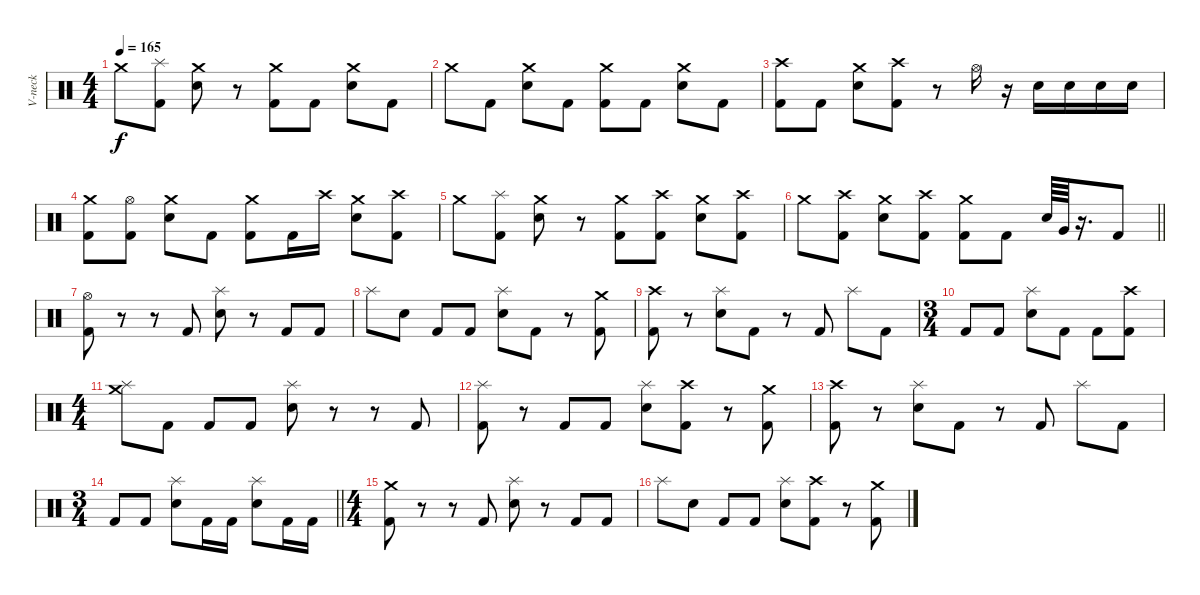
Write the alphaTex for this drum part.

\track ("V-neck" "V-neck") {instrument percussion}
\staff {score}
\articulation defaults
\ts (4 4)
\tempo 165
\clef neutral
\ks c "Crash medium (hit)".8{dy f}
("Splash (hit)" "Kick (hit) 2").8 ("Crash medium (hit)" "Electric Snare (hit)").8 r.8 ("Crash medium (hit)" "Kick (hit) 2").8 "Kick (hit) 2".8 ("Crash medium (hit)" "Electric Snare (hit)").8 "Kick (hit) 2".8 |
"Crash medium (hit)".8 "Kick (hit) 2".8 ("Crash medium (hit)" "Electric Snare (hit)").8 "Kick (hit) 2".8 ("Crash medium (hit)" "Kick (hit) 2").8 "Kick (hit) 2".8 ("Crash medium (hit)" "Electric Snare (hit)").8 "Kick (hit) 2".8 |
("Crash high (hit)" "Kick (hit) 2").8 "Kick (hit) 2".8 ("Crash medium (hit)" "Electric Snare (hit)").8 ("Crash high (hit)" "Kick (hit) 2").8 r.8 "Hi-Hat (open)".16 r.16 "Electric Snare (hit)".16 "Electric Snare (hit)".16 "Electric Snare (hit)".16 "Electric Snare (hit)".16 |
("Crash medium (hit)" "Kick (hit) 2").8 ("Hi-Hat (open)" "Kick (hit) 2").8 ("Crash medium (hit)" "Electric Snare (hit)").8 "Kick (hit) 2".8 ("Crash medium (hit)" "Kick (hit) 2").8 "Kick (hit) 2".16 "Crash high (hit)".16 ("Crash medium (hit)" "Electric Snare (hit)").8 ("Crash high (hit)" "Kick (hit) 2").8 |
"Crash medium (hit)".8 ("Splash (hit)" "Kick (hit) 2").8 ("Crash medium (hit)" "Electric Snare (hit)").8 r.8 ("Crash medium (hit)" "Kick (hit) 2").8 ("Crash high (hit)" "Kick (hit) 2").8 ("Crash medium (hit)" "Electric Snare (hit)").8 ("Crash high (hit)" "Kick (hit) 2").8 |
\barLineRight lightlight "Crash medium (hit)".8
("Crash high (hit)" "Kick (hit) 2").8 ("Crash medium (hit)" "Electric Snare (hit)").8 ("Crash high (hit)" "Kick (hit) 2").8 ("Crash medium (hit)" "Kick (hit) 2").8 "Kick (hit) 2".8 "Electric Snare (hit)".64 "Very Low Tom (hit)".64 r.16{d} "Kick (hit) 2".8 |
\section ("" "")
("Hi-Hat (open)" "Kick (hit) 2").8 r.8 r.8 "Kick (hit) 2".8 ("Splash (hit)" "Electric Snare (hit)").8 r.8 "Kick (hit) 2".8 "Kick (hit) 2".8 |
"Splash (hit)".8 "Electric Snare (hit)".8 "Kick (hit) 2".8 "Kick (hit) 2".8 ("Splash (hit)" "Electric Snare (hit)").8 "Kick (hit) 2".8 r.8 ("Crash medium (hit)" "Kick (hit) 2").8 |
("Crash high (hit)" "Kick (hit) 2").8 r.8 ("Splash (hit)" "Electric Snare (hit)").8 "Kick (hit) 2".8 r.8 "Kick (hit) 2".8 "Splash (hit)".8 "Kick (hit) 2".8 |
\ts (3 4)
"Kick (hit) 2".8 "Kick (hit) 2".8 ("Splash (hit)" "Electric Snare (hit)").8 "Kick (hit) 2".8 "Kick (hit) 2".8 ("Crash high (hit)" "Kick (hit) 2").8 |
\ts (4 4)
("Crash medium (hit)" "Splash (hit)").8 "Kick (hit) 2".8 "Kick (hit) 2".8 "Kick (hit) 2".8 ("Splash (hit)" "Electric Snare (hit)").8 r.8 r.8 "Kick (hit) 2".8 |
("Splash (hit)" "Kick (hit) 2").8 r.8 "Kick (hit) 2".8 "Kick (hit) 2".8 ("Splash (hit)" "Electric Snare (hit)").8 ("Crash high (hit)" "Kick (hit) 2").8 r.8 ("Crash medium (hit)" "Kick (hit) 2").8 |
("Crash high (hit)" "Kick (hit) 2").8 r.8 ("Splash (hit)" "Electric Snare (hit)").8 "Kick (hit) 2".8 r.8 "Kick (hit) 2".8 "Splash (hit)".8 "Kick (hit) 2".8 |
\ts (3 4)
\barLineRight lightlight "Kick (hit) 2".8 "Kick (hit) 2".8
("Splash (hit)" "Electric Snare (hit)").8 "Kick (hit) 2".16 "Kick (hit) 2".16 ("Splash (hit)" "Electric Snare (hit)").8 "Kick (hit) 2".16 "Kick (hit) 2".16 |
\ts (4 4)
\section ("" "")
("Crash medium (hit)" "Kick (hit) 2").8 r.8 r.8 "Kick (hit) 2".8 ("Splash (hit)" "Electric Snare (hit)").8 r.8 "Kick (hit) 2".8 "Kick (hit) 2".8 |
"Splash (hit)".8 "Electric Snare (hit)".8 "Kick (hit) 2".8 "Kick (hit) 2".8 ("Splash (hit)" "Electric Snare (hit)").8 ("Crash high (hit)" "Kick (hit) 2").8 r.8 ("Crash medium (hit)" "Kick (hit) 2").8
